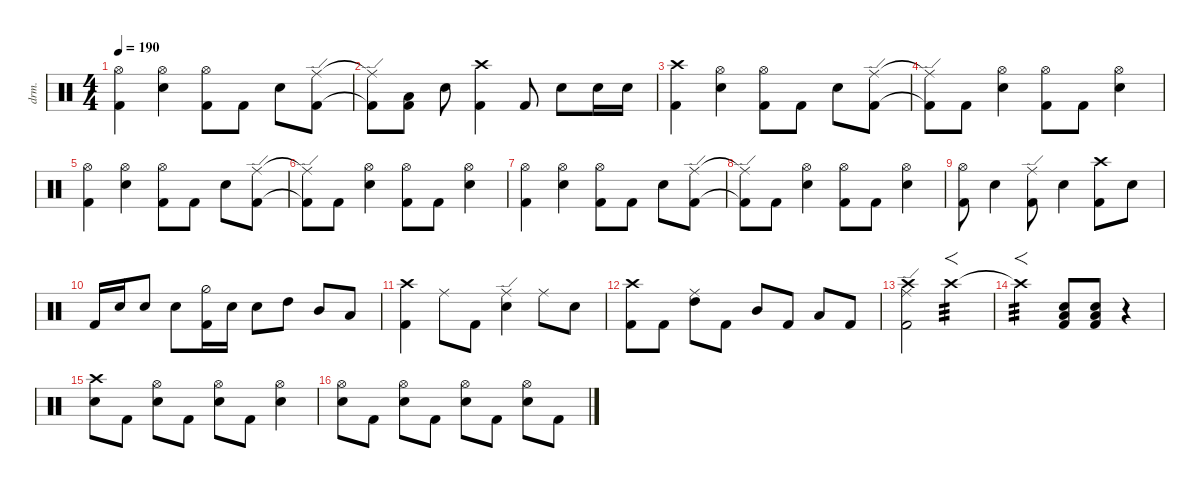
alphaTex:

\defaultSystemsLayout 4
\hideDynamics
\bracketExtendMode nobrackets
\track ("Drumkit" "drm.") {instrument percussion}
\staff {score}
\articulation defaults
\ts (4 4)
\tempo 190
\clef neutral
\ks c
("Kick (hit) 2" "Hi-Hat (open)").4{dy mf} ("Hi-Hat (open)" "Snare (hit) 2").4 ("Hi-Hat (open)" "Kick (hit) 2").8 "Kick (hit) 2".8 "Snare (hit) 2".8 ("Ride (edge)" "Kick (hit) 2").8 |
("Ride (edge)"{t} "Kick (hit) 2"{t}).8 ("Kick (hit) 2" "Low Tom (hit)").8 "Snare (hit) 2".8 ("Kick (hit) 2" "Crash high (hit)").4 "Kick (hit) 2".8 "Snare (hit) 2".8 "Snare (hit) 2".16 "Snare (hit) 2".16 |
("Crash high (hit)" "Kick (hit) 2").4 ("Hi-Hat (open)" "Snare (hit) 2").4 ("Hi-Hat (open)" "Kick (hit) 2").8 "Kick (hit) 2".8 "Snare (hit) 2".8 ("Ride (edge)" "Kick (hit) 2").8 |
("Ride (edge)"{t} "Kick (hit) 2"{t}).8 "Kick (hit) 2".8 ("Hi-Hat (open)" "Snare (hit) 2").4 ("Hi-Hat (open)" "Kick (hit) 2").8 "Kick (hit) 2".8 ("Hi-Hat (open)" "Snare (hit) 2").4 |
("Kick (hit) 2" "Hi-Hat (open)").4 ("Hi-Hat (open)" "Snare (hit) 2").4 ("Hi-Hat (open)" "Kick (hit) 2").8 "Kick (hit) 2".8 "Snare (hit) 2".8 ("Ride (edge)" "Kick (hit) 2").8 |
("Ride (edge)"{t} "Kick (hit) 2"{t}).8 "Kick (hit) 2".8 ("Hi-Hat (open)" "Snare (hit) 2").4 ("Hi-Hat (open)" "Kick (hit) 2").8 "Kick (hit) 2".8 ("Hi-Hat (open)" "Snare (hit) 2").4 |
("Kick (hit) 2" "Hi-Hat (open)").4 ("Hi-Hat (open)" "Snare (hit) 2").4 ("Hi-Hat (open)" "Kick (hit) 2").8 "Kick (hit) 2".8 "Snare (hit) 2".8 ("Ride (edge)" "Kick (hit) 2").8 |
("Ride (edge)"{t} "Kick (hit) 2"{t}).8 "Kick (hit) 2".8 ("Hi-Hat (open)" "Snare (hit) 2").4 ("Hi-Hat (open)" "Kick (hit) 2").8 "Kick (hit) 2".8 ("Hi-Hat (open)" "Snare (hit) 2").4 |
("Kick (hit) 2" "Hi-Hat (open)").8 "Snare (hit) 2".4 ("Kick (hit) 2" "Ride (edge)").8 "Snare (hit) 2".4 ("Kick (hit) 2" "Crash high (hit)").8 "Snare (hit) 2".8 |
"Kick (hit) 2".16 "Snare (hit) 2".16 "Snare (hit) 2".8 "Snare (hit) 2".8 ("Kick (hit) 2" "Hi-Hat (half)").16 "Snare (hit) 2".16 "Snare (hit) 2".8 "High Tom (hit)".8 "Mid Tom (hit)".8 "Low Tom (hit)".8 |
("Kick (hit) 2" "Crash high (hit)").4 "Ride (middle)".8 "Kick (hit) 2".8 ("Snare (hit) 2" "Ride (edge)").4 "Ride (middle)".8 "Snare (hit) 2".8 |
("Kick (hit) 2" "Crash high (hit)").8 "Kick (hit) 2".8 ("High Tom (hit)" "Ride (middle)").8 "Kick (hit) 2".8 "Mid Tom (hit)".8 "Kick (hit) 2".8 "Low Tom (hit)".8 "Kick (hit) 2".8 |
("Kick (hit) 2" "Crash high (hit)" "Ride (edge)").2 "Crash high (hit)".2{f tp 3} |
"Crash high (hit)"{t}.2{f tp 3} ("Kick (hit) 2" "Low Tom (hit)" "Snare (hit) 2").8 ("Kick (hit) 2" "Low Tom (hit)" "Snare (hit) 2").8 r.4 |
("Snare (hit) 2" "Crash high (hit)").8 "Kick (hit) 2".8 ("Snare (hit) 2" "Hi-Hat (open)").8 "Kick (hit) 2".8 ("Snare (hit) 2" "Hi-Hat (open)").8 "Kick (hit) 2".8 ("Snare (hit) 2" "Hi-Hat (open)").4 |
("Snare (hit) 2" "Hi-Hat (open)").8 "Kick (hit) 2".8 ("Snare (hit) 2" "Hi-Hat (open)").8 "Kick (hit) 2".8 ("Snare (hit) 2" "Hi-Hat (open)").8 "Kick (hit) 2".8 ("Snare (hit) 2" "Hi-Hat (open)").8 "Kick (hit) 2".8
